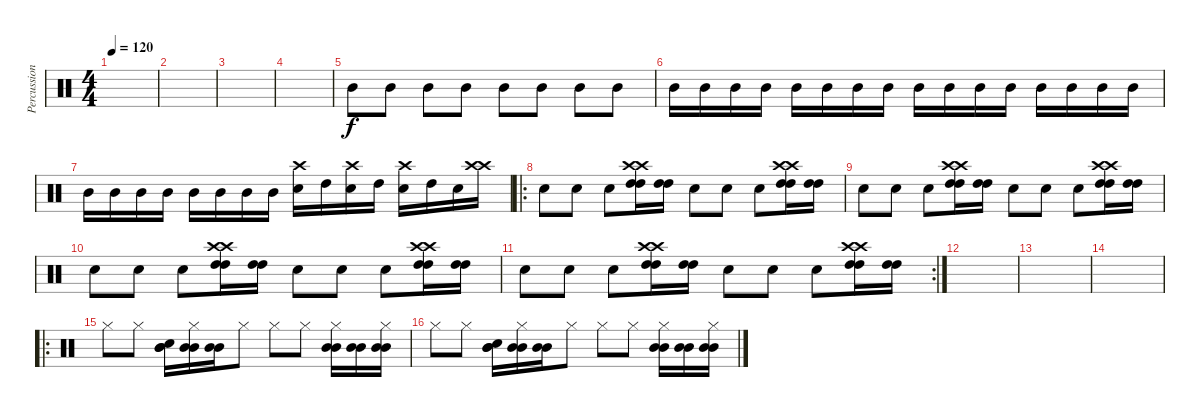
\track ("Percussions" "Percussion") {instrument percussion}
\staff {score}
\articulation defaults
\ts (4 4)
\tempo 120
\clef neutral
\ks c
|
|
|
|
"Mid Tom (hit)".8{volume 8} "Mid Tom (hit)".8 "Mid Tom (hit)".8 "Mid Tom (hit)".8 "Mid Tom (hit)".8 "Mid Tom (hit)".8 "Mid Tom (hit)".8 "Mid Tom (hit)".8 |
"Mid Tom (hit)".16{volume 11} "Mid Tom (hit)".16 "Mid Tom (hit)".16 "Mid Tom (hit)".16 "Mid Tom (hit)".16 "Mid Tom (hit)".16 "Mid Tom (hit)".16 "Mid Tom (hit)".16 "Mid Tom (hit)".16 "Mid Tom (hit)".16 "Mid Tom (hit)".16 "Mid Tom (hit)".16 "Mid Tom (hit)".16 "Mid Tom (hit)".16 "Mid Tom (hit)".16 "Mid Tom (hit)".16 |
"Mid Tom (hit)".16{volume 16} "Mid Tom (hit)".16 "Mid Tom (hit)".16 "Mid Tom (hit)".16 "Mid Tom (hit)".16 "Mid Tom (hit)".16 "Mid Tom (hit)".16 "Mid Tom (hit)".16 ("Snare (hit) 2" "Crash high (hit)").16 "High Tom (hit)".16 ("Snare (hit) 2" "Crash high (hit)").16 "High Tom (hit)".16 ("Snare (hit) 2" "Crash high (hit)").16 "High Tom (hit)".16 "Snare (hit) 2".16 ("Crash high (hit)" "Crash high (hit)").16 |
\ro "Snare (hit) 2".8 "Snare (hit) 2".8 "Snare (hit) 2".8
("Crash high (hit)" "Crash high (hit)" "High Tom (hit)" "High Tom (hit)").16 ("High Tom (hit)" "High Tom (hit)").16 "Snare (hit) 2".8 "Snare (hit) 2".8 "Snare (hit) 2".8 ("Crash high (hit)" "Crash high (hit)" "High Tom (hit)" "High Tom (hit)").16 ("High Tom (hit)" "High Tom (hit)").16 |
"Snare (hit) 2".8 "Snare (hit) 2".8 "Snare (hit) 2".8 ("Crash high (hit)" "Crash high (hit)" "High Tom (hit)" "High Tom (hit)").16 ("High Tom (hit)" "High Tom (hit)").16 "Snare (hit) 2".8 "Snare (hit) 2".8 "Snare (hit) 2".8 ("Crash high (hit)" "Crash high (hit)" "High Tom (hit)" "High Tom (hit)").16 ("High Tom (hit)" "High Tom (hit)").16 |
"Snare (hit) 2".8 "Snare (hit) 2".8 "Snare (hit) 2".8 ("Crash high (hit)" "Crash high (hit)" "High Tom (hit)" "High Tom (hit)").16 ("High Tom (hit)" "High Tom (hit)").16 "Snare (hit) 2".8 "Snare (hit) 2".8 "Snare (hit) 2".8 ("Crash high (hit)" "Crash high (hit)" "High Tom (hit)" "High Tom (hit)").16 ("High Tom (hit)" "High Tom (hit)").16 |
\rc 2 "Snare (hit) 2".8 "Snare (hit) 2".8 "Snare (hit) 2".8
("Crash high (hit)" "Crash high (hit)" "High Tom (hit)" "High Tom (hit)").16 ("High Tom (hit)" "High Tom (hit)").16 "Snare (hit) 2".8 "Snare (hit) 2".8 "Snare (hit) 2".8 ("Crash high (hit)" "Crash high (hit)" "High Tom (hit)" "High Tom (hit)").16 ("High Tom (hit)" "High Tom (hit)").16 |
|
|
|
\ro "Hi-Hat (closed)".8 "Hi-Hat (closed)".8
("Mid Tom (hit)" "Snare (hit) 2" "Mid Tom (hit)").16 ("Mid Tom (hit)" "Mid Tom (hit)" "Hi-Hat (closed)").16 ("Mid Tom (hit)" "Mid Tom (hit)").16 "Hi-Hat (closed)".8 "Hi-Hat (closed)".8 "Hi-Hat (closed)".8 ("Mid Tom (hit)" "Mid Tom (hit)" "Hi-Hat (closed)").16 ("Mid Tom (hit)" "Mid Tom (hit)").16 ("Mid Tom (hit)" "Mid Tom (hit)" "Hi-Hat (closed)").16 |
"Hi-Hat (closed)".8 "Hi-Hat (closed)".8 ("Mid Tom (hit)" "Snare (hit) 2" "Mid Tom (hit)").16 ("Mid Tom (hit)" "Mid Tom (hit)" "Hi-Hat (closed)").16 ("Mid Tom (hit)" "Mid Tom (hit)").16 "Hi-Hat (closed)".8 "Hi-Hat (closed)".8 "Hi-Hat (closed)".8 ("Mid Tom (hit)" "Mid Tom (hit)" "Hi-Hat (closed)").16 ("Mid Tom (hit)" "Mid Tom (hit)").16 ("Mid Tom (hit)" "Mid Tom (hit)" "Hi-Hat (closed)").16
